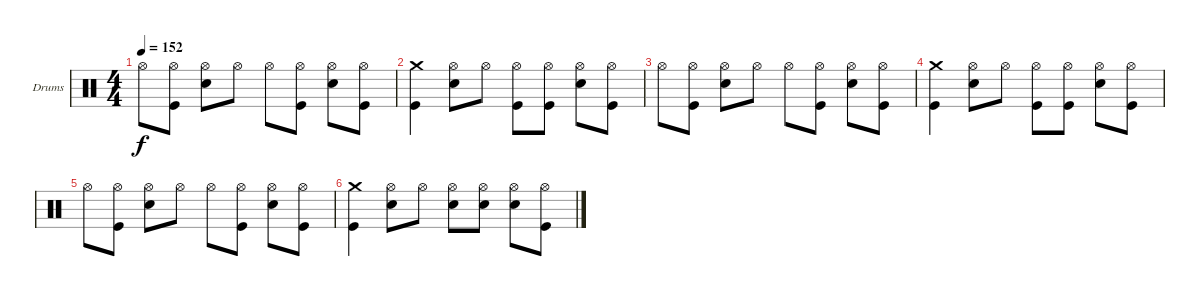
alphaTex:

\defaultSystemsLayout 4
\bracketExtendMode groupsimilarinstruments
\firstSystemTrackNameOrientation horizontal
\otherSystemsTrackNameOrientation horizontal
\track ("Drumkit" "Drums") {instrument percussion}
\staff {score}
\articulation defaults
\ts (4 4)
\tempo 152
\clef neutral
\scale
1.02648
\ks c "Hi-Hat (open)".8{dy f}
("Hi-Hat (open)" "Kick (hit)").8 ("Hi-Hat (open)" "Snare (hit) 2").8 "Hi-Hat (open)".8 "Hi-Hat (open)".8 ("Hi-Hat (open)" "Kick (hit)").8 ("Hi-Hat (open)" "Snare (hit) 2").8 ("Hi-Hat (open)" "Kick (hit)").8 |
\scale
0.973518 ("Crash medium (hit)" "Kick (hit)").4 ("Hi-Hat (open)" "Snare (hit) 2").8 "Hi-Hat (open)".8 ("Hi-Hat (open)" "Kick (hit)").8 ("Hi-Hat (open)" "Kick (hit)").8 ("Hi-Hat (open)" "Snare (hit) 2").8 ("Hi-Hat (open)" "Kick (hit)").8 |
\scale
1.02648 "Hi-Hat (open)".8 ("Hi-Hat (open)" "Kick (hit)").8 ("Hi-Hat (open)" "Snare (hit) 2").8 "Hi-Hat (open)".8 "Hi-Hat (open)".8 ("Hi-Hat (open)" "Kick (hit)").8 ("Hi-Hat (open)" "Snare (hit) 2").8 ("Hi-Hat (open)" "Kick (hit)").8 |
\scale
0.973518 ("Crash medium (hit)" "Kick (hit)").4 ("Hi-Hat (open)" "Snare (hit) 2").8 "Hi-Hat (open)".8 ("Hi-Hat (open)" "Kick (hit)").8 ("Hi-Hat (open)" "Kick (hit)").8 ("Hi-Hat (open)" "Snare (hit) 2").8 ("Hi-Hat (open)" "Kick (hit)").8 |
\scale
1.02648 "Hi-Hat (open)".8 ("Hi-Hat (open)" "Kick (hit)").8 ("Hi-Hat (open)" "Snare (hit) 2").8 "Hi-Hat (open)".8 "Hi-Hat (open)".8 ("Hi-Hat (open)" "Kick (hit)").8 ("Hi-Hat (open)" "Snare (hit) 2").8 ("Hi-Hat (open)" "Kick (hit)").8 |
\scale
0.973518 ("Crash medium (hit)" "Kick (hit)").4 ("Hi-Hat (open)" "Snare (hit) 2").8 "Hi-Hat (open)".8 ("Hi-Hat (open)" "Snare (hit) 2").8 ("Hi-Hat (open)" "Snare (hit) 2").8 ("Hi-Hat (open)" "Snare (hit) 2").8 ("Hi-Hat (open)" "Kick (hit)").8 |
\scale
1.02648 |
\scale
0.973518
